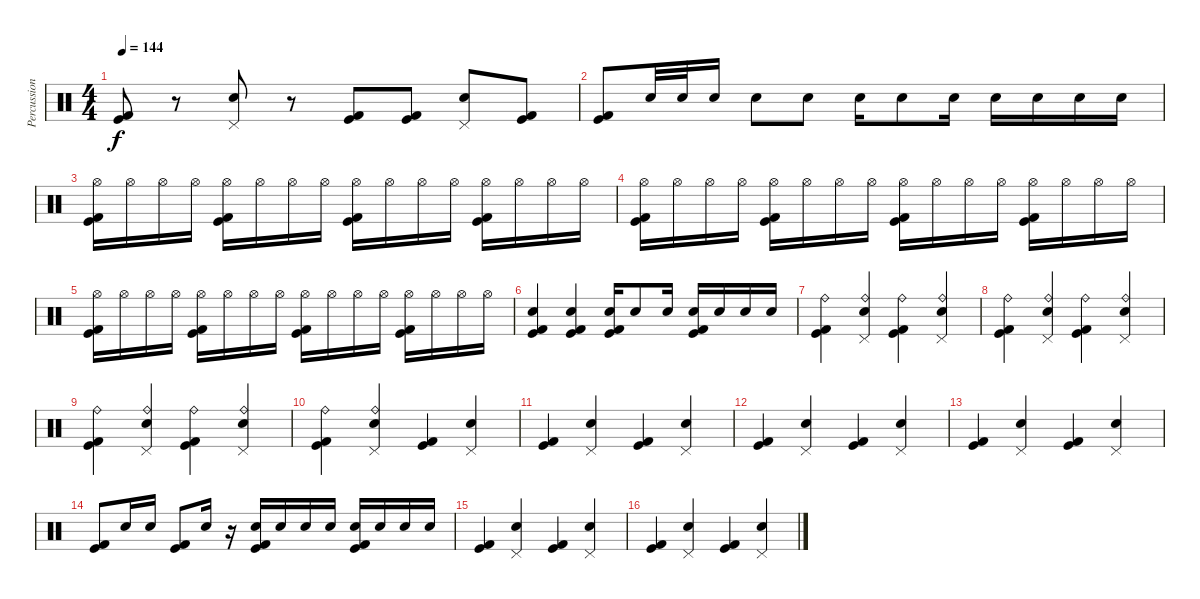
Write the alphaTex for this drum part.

\track ("Percussions" "Percussion") {instrument percussion}
\staff {score}
\articulation defaults
\ts (4 4)
\tempo 144
\clef neutral
\ks c
("Kick (hit)" "Kick (hit) 2").8{dy f} r.8 ("Pedal Hi-Hat (hit)" "Snare (hit) 2").8 r.8 ("Kick (hit)" "Kick (hit) 2").8 ("Kick (hit)" "Kick (hit) 2").8 ("Pedal Hi-Hat (hit)" "Snare (hit) 2").8 ("Kick (hit)" "Kick (hit) 2").8 |
("Kick (hit)" "Kick (hit) 2").8 "Electric Snare (hit)".32 "Electric Snare (hit)".32 "Electric Snare (hit)".16 "Electric Snare (hit)".8 "Electric Snare (hit)".8 "Electric Snare (hit)".16 "Electric Snare (hit)".8 "Electric Snare (hit)".16 "Electric Snare (hit)".16 "Electric Snare (hit)".16 "Electric Snare (hit)".16 "Electric Snare (hit)".16 |
("Hi-Hat (open)" "Kick (hit)" "Kick (hit) 2").16 "Hi-Hat (open)".16 "Hi-Hat (open)".16 "Hi-Hat (open)".16 ("Hi-Hat (open)" "Kick (hit)" "Kick (hit) 2").16 "Hi-Hat (open)".16 "Hi-Hat (open)".16 "Hi-Hat (open)".16 ("Hi-Hat (open)" "Kick (hit)" "Kick (hit) 2").16 "Hi-Hat (open)".16 "Hi-Hat (open)".16 "Hi-Hat (open)".16 ("Hi-Hat (open)" "Kick (hit)" "Kick (hit) 2").16 "Hi-Hat (open)".16 "Hi-Hat (open)".16 "Hi-Hat (open)".16 |
("Hi-Hat (open)" "Kick (hit)" "Kick (hit) 2").16 "Hi-Hat (open)".16 "Hi-Hat (open)".16 "Hi-Hat (open)".16 ("Hi-Hat (open)" "Kick (hit)" "Kick (hit) 2").16 "Hi-Hat (open)".16 "Hi-Hat (open)".16 "Hi-Hat (open)".16 ("Hi-Hat (open)" "Kick (hit)" "Kick (hit) 2").16 "Hi-Hat (open)".16 "Hi-Hat (open)".16 "Hi-Hat (open)".16 ("Hi-Hat (open)" "Kick (hit)" "Kick (hit) 2").16 "Hi-Hat (open)".16 "Hi-Hat (open)".16 "Hi-Hat (open)".16 |
("Hi-Hat (open)" "Kick (hit)" "Kick (hit) 2").16 "Hi-Hat (open)".16 "Hi-Hat (open)".16 "Hi-Hat (open)".16 ("Hi-Hat (open)" "Kick (hit)" "Kick (hit) 2").16 "Hi-Hat (open)".16 "Hi-Hat (open)".16 "Hi-Hat (open)".16 ("Hi-Hat (open)" "Kick (hit)" "Kick (hit) 2").16 "Hi-Hat (open)".16 "Hi-Hat (open)".16 "Hi-Hat (open)".16 ("Hi-Hat (open)" "Kick (hit)" "Kick (hit) 2").16 "Hi-Hat (open)".16 "Hi-Hat (open)".16 "Hi-Hat (open)".16 |
("Electric Snare (hit)" "Kick (hit)" "Kick (hit) 2").4 ("Electric Snare (hit)" "Kick (hit)" "Kick (hit) 2").4 ("Electric Snare (hit)" "Kick (hit)" "Kick (hit) 2").16 "Electric Snare (hit)".8 "Electric Snare (hit)".16 ("Electric Snare (hit)" "Kick (hit)" "Kick (hit) 2").16 "Electric Snare (hit)".16 "Electric Snare (hit)".16 "Electric Snare (hit)".16 |
("Ride (bell)" "Kick (hit)" "Kick (hit) 2").4 ("Ride (bell)" "Pedal Hi-Hat (hit)" "Snare (hit) 2").4 ("Ride (bell)" "Kick (hit)" "Kick (hit) 2").4 ("Ride (bell)" "Pedal Hi-Hat (hit)" "Snare (hit) 2").4 |
("Ride (bell)" "Kick (hit)" "Kick (hit) 2").4 ("Ride (bell)" "Pedal Hi-Hat (hit)" "Snare (hit) 2").4 ("Ride (bell)" "Kick (hit)" "Kick (hit) 2").4 ("Ride (bell)" "Pedal Hi-Hat (hit)" "Snare (hit) 2").4 |
("Ride (bell)" "Kick (hit)" "Kick (hit) 2").4 ("Ride (bell)" "Pedal Hi-Hat (hit)" "Snare (hit) 2").4 ("Ride (bell)" "Kick (hit)" "Kick (hit) 2").4 ("Ride (bell)" "Pedal Hi-Hat (hit)" "Snare (hit) 2").4 |
("Ride (bell)" "Kick (hit)" "Kick (hit) 2").4 ("Ride (bell)" "Pedal Hi-Hat (hit)" "Snare (hit) 2").4 ("Kick (hit)" "Kick (hit) 2").4 ("Pedal Hi-Hat (hit)" "Snare (hit) 2").4 |
("Kick (hit)" "Kick (hit) 2").4 ("Pedal Hi-Hat (hit)" "Snare (hit) 2").4 ("Kick (hit)" "Kick (hit) 2").4 ("Pedal Hi-Hat (hit)" "Snare (hit) 2").4 |
("Kick (hit)" "Kick (hit) 2").4 ("Pedal Hi-Hat (hit)" "Snare (hit) 2").4 ("Kick (hit)" "Kick (hit) 2").4 ("Pedal Hi-Hat (hit)" "Snare (hit) 2").4 |
("Kick (hit)" "Kick (hit) 2").4 ("Pedal Hi-Hat (hit)" "Snare (hit) 2").4 ("Kick (hit)" "Kick (hit) 2").4 ("Pedal Hi-Hat (hit)" "Snare (hit) 2").4 |
("Kick (hit)" "Kick (hit) 2").8 "Snare (hit) 2".16 "Electric Snare (hit)".16 ("Kick (hit)" "Kick (hit) 2").8 "Electric Snare (hit)".16 r.16 ("Electric Snare (hit)" "Kick (hit)" "Kick (hit) 2").16 "Electric Snare (hit)".16 "Electric Snare (hit)".16 "Electric Snare (hit)".16 ("Electric Snare (hit)" "Kick (hit)" "Kick (hit) 2").16 "Electric Snare (hit)".16 "Electric Snare (hit)".16 "Electric Snare (hit)".16 |
("Kick (hit)" "Kick (hit) 2").4 ("Pedal Hi-Hat (hit)" "Snare (hit) 2").4 ("Kick (hit)" "Kick (hit) 2").4 ("Pedal Hi-Hat (hit)" "Snare (hit) 2").4 |
("Kick (hit)" "Kick (hit) 2").4 ("Pedal Hi-Hat (hit)" "Snare (hit) 2").4 ("Kick (hit)" "Kick (hit) 2").4 ("Pedal Hi-Hat (hit)" "Snare (hit) 2").4
